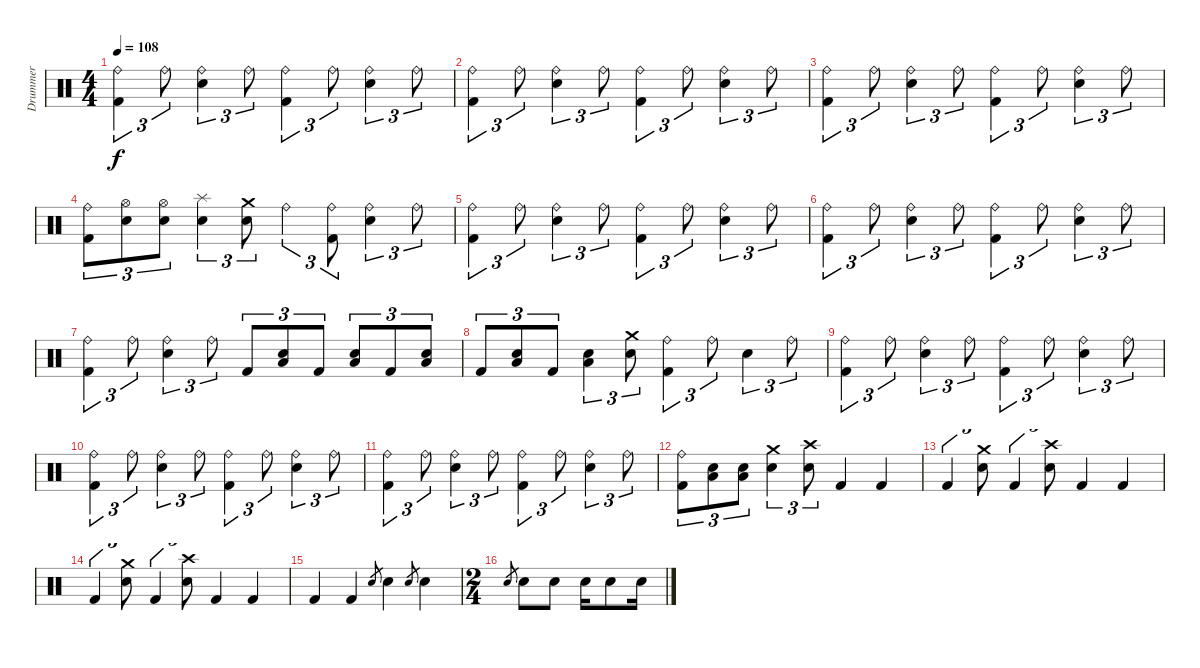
\track ("Drummer" "Drummer") {instrument percussion}
\staff {score}
\articulation defaults
\ts (4 4)
\tempo 108
\clef neutral
\ks c
("Ride (bell)" "Kick (hit) 2").4{tu (3 2) dy f} "Ride (bell)".8{tu (3 2)} ("Ride (bell)" "Electric Snare (hit)").4{tu (3 2)} "Ride (bell)".8{tu (3 2)} ("Ride (bell)" "Kick (hit) 2").4{tu (3 2)} "Ride (bell)".8{tu (3 2)} ("Ride (bell)" "Electric Snare (hit)").4{tu (3 2)} "Ride (bell)".8{tu (3 2)} |
("Ride (bell)" "Kick (hit) 2").4{tu (3 2)} "Ride (bell)".8{tu (3 2)} ("Ride (bell)" "Electric Snare (hit)").4{tu (3 2)} "Ride (bell)".8{tu (3 2)} ("Ride (bell)" "Kick (hit) 2").4{tu (3 2)} "Ride (bell)".8{tu (3 2)} ("Ride (bell)" "Electric Snare (hit)").4{tu (3 2)} "Ride (bell)".8{tu (3 2)} |
("Ride (bell)" "Kick (hit) 2").4{tu (3 2)} "Ride (bell)".8{tu (3 2)} ("Ride (bell)" "Electric Snare (hit)").4{tu (3 2)} "Ride (bell)".8{tu (3 2)} ("Ride (bell)" "Kick (hit) 2").4{tu (3 2)} "Ride (bell)".8{tu (3 2)} ("Ride (bell)" "Electric Snare (hit)").4{tu (3 2)} "Ride (bell)".8{tu (3 2)} |
("Ride (bell)" "Kick (hit) 2").8{tu (3 2)} ("Hi-Hat (open)" "Electric Snare (hit)").8{tu (3 2)} ("Hi-Hat (open)" "Electric Snare (hit)").8{tu (3 2)} ("Splash (hit)" "Electric Snare (hit)").4{tu (3 2)} ("Crash medium (hit)" "Electric Snare (hit)").8{tu (3 2)} "Ride (bell)".4{tu (3 2)} ("Ride (bell)" "Kick (hit) 2").8{tu (3 2)} ("Ride (bell)" "Electric Snare (hit)").4{tu (3 2)} "Ride (bell)".8{tu (3 2)} |
("Ride (bell)" "Kick (hit) 2").4{tu (3 2)} "Ride (bell)".8{tu (3 2)} ("Ride (bell)" "Electric Snare (hit)").4{tu (3 2)} "Ride (bell)".8{tu (3 2)} ("Ride (bell)" "Kick (hit) 2").4{tu (3 2)} "Ride (bell)".8{tu (3 2)} ("Ride (bell)" "Electric Snare (hit)").4{tu (3 2)} "Ride (bell)".8{tu (3 2)} |
("Ride (bell)" "Kick (hit) 2").4{tu (3 2)} "Ride (bell)".8{tu (3 2)} ("Ride (bell)" "Electric Snare (hit)").4{tu (3 2)} "Ride (bell)".8{tu (3 2)} ("Ride (bell)" "Kick (hit) 2").4{tu (3 2)} "Ride (bell)".8{tu (3 2)} ("Ride (bell)" "Electric Snare (hit)").4{tu (3 2)} "Ride (bell)".8{tu (3 2)} |
("Ride (bell)" "Kick (hit) 2").4{tu (3 2)} "Ride (bell)".8{tu (3 2)} ("Ride (bell)" "Electric Snare (hit)").4{tu (3 2)} "Ride (bell)".8{tu (3 2)} "Kick (hit) 2".8{tu (3 2)} ("Low Floor Tom (hit)" "Electric Snare (hit)").8{tu (3 2)} "Kick (hit) 2".8{tu (3 2)} ("Low Floor Tom (hit)" "Electric Snare (hit)").8{tu (3 2)} "Kick (hit) 2".8{tu (3 2)} ("Low Floor Tom (hit)" "Electric Snare (hit)").8{tu (3 2)} |
"Kick (hit) 2".8{tu (3 2)} ("Low Floor Tom (hit)" "Electric Snare (hit)").8{tu (3 2)} "Kick (hit) 2".8{tu (3 2)} ("Low Floor Tom (hit)" "Electric Snare (hit)").4{tu (3 2)} ("Crash medium (hit)" "Electric Snare (hit)").8{tu (3 2)} ("Ride (bell)" "Kick (hit) 2").4{tu (3 2)} "Ride (bell)".8{tu (3 2)} "Electric Snare (hit)".4{tu (3 2)} "Ride (bell)".8{tu (3 2)} |
("Ride (bell)" "Kick (hit) 2").4{tu (3 2)} "Ride (bell)".8{tu (3 2)} ("Ride (bell)" "Electric Snare (hit)").4{tu (3 2)} "Ride (bell)".8{tu (3 2)} ("Ride (bell)" "Kick (hit) 2").4{tu (3 2)} "Ride (bell)".8{tu (3 2)} ("Ride (bell)" "Electric Snare (hit)").4{tu (3 2)} "Ride (bell)".8{tu (3 2)} |
("Ride (bell)" "Kick (hit) 2").4{tu (3 2)} "Ride (bell)".8{tu (3 2)} ("Ride (bell)" "Electric Snare (hit)").4{tu (3 2)} "Ride (bell)".8{tu (3 2)} ("Ride (bell)" "Kick (hit) 2").4{tu (3 2)} "Ride (bell)".8{tu (3 2)} ("Ride (bell)" "Electric Snare (hit)").4{tu (3 2)} "Ride (bell)".8{tu (3 2)} |
("Ride (bell)" "Kick (hit) 2").4{tu (3 2)} "Ride (bell)".8{tu (3 2)} ("Ride (bell)" "Electric Snare (hit)").4{tu (3 2)} "Ride (bell)".8{tu (3 2)} ("Ride (bell)" "Kick (hit) 2").4{tu (3 2)} "Ride (bell)".8{tu (3 2)} ("Ride (bell)" "Electric Snare (hit)").4{tu (3 2)} "Ride (bell)".8{tu (3 2)} |
("Ride (bell)" "Kick (hit) 2").8{tu (3 2)} ("Low Floor Tom (hit)" "Electric Snare (hit)").8{tu (3 2)} ("Low Floor Tom (hit)" "Electric Snare (hit)").8{tu (3 2)} ("Crash medium (hit)" "Electric Snare (hit)").4{tu (3 2)} ("Crash high (hit)" "Electric Snare (hit)").8{tu (3 2)} "Kick (hit) 2".4 "Kick (hit) 2".4 |
"Kick (hit) 2".4{tu (3 2)} ("Crash medium (hit)" "Electric Snare (hit)").8{tu (3 2)} "Kick (hit) 2".4{tu (3 2)} ("Crash high (hit)" "Electric Snare (hit)").8{tu (3 2)} "Kick (hit) 2".4 "Kick (hit) 2".4 |
"Kick (hit) 2".4{tu (3 2)} ("Crash medium (hit)" "Electric Snare (hit)").8{tu (3 2)} "Kick (hit) 2".4{tu (3 2)} ("Crash high (hit)" "Electric Snare (hit)").8{tu (3 2)} "Kick (hit) 2".4 "Kick (hit) 2".4 |
"Kick (hit) 2".4 "Kick (hit) 2".4 "Electric Snare (hit)".8{gr} "Electric Snare (hit)".4 "Electric Snare (hit)".8{gr} "Electric Snare (hit)".4 |
\ts (2 4)
"Electric Snare (hit)".8{gr} "Electric Snare (hit)".8 "Electric Snare (hit)".8 "Electric Snare (hit)".16 "Electric Snare (hit)".8 "Electric Snare (hit)".16
